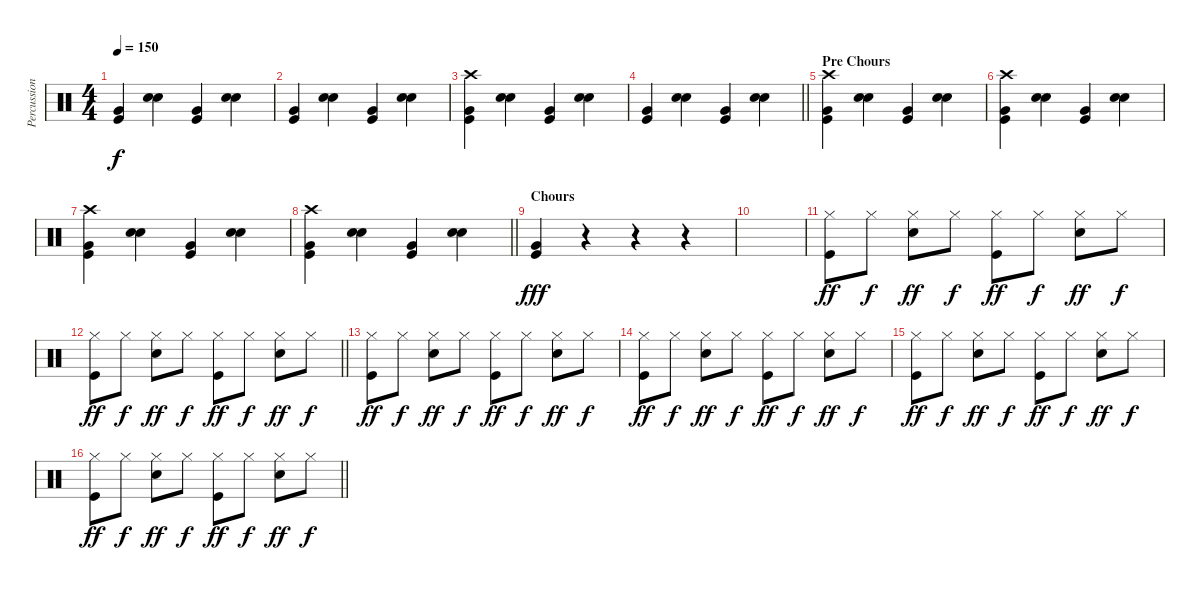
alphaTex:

\track ("Percussion" "Percussion") {instrument percussion}
\staff {score}
\articulation defaults
\ts (4 4)
\tempo 150
\clef neutral
\ks c
("Kick (hit)" "Very Low Tom (hit)").4{dy f} ("Snare (hit) 2" "Snare (hit) 2").4 ("Kick (hit)" "Very Low Tom (hit)").4 ("Snare (hit) 2" "Snare (hit) 2").4 |
("Kick (hit)" "Very Low Tom (hit)").4 ("Snare (hit) 2" "Snare (hit) 2").4 ("Kick (hit)" "Very Low Tom (hit)").4 ("Snare (hit) 2" "Snare (hit) 2").4 |
("Kick (hit)" "Very Low Tom (hit)" "Crash high (hit)").4 ("Snare (hit) 2" "Snare (hit) 2").4 ("Kick (hit)" "Very Low Tom (hit)").4 ("Snare (hit) 2" "Snare (hit) 2").4 |
\barLineRight lightlight
("Kick (hit)" "Very Low Tom (hit)").4 ("Snare (hit) 2" "Snare (hit) 2").4 ("Kick (hit)" "Very Low Tom (hit)").4 ("Snare (hit) 2" "Snare (hit) 2").4 |
\section ("" "Pre Chours")
("Kick (hit)" "Very Low Tom (hit)" "Crash high (hit)").4 ("Snare (hit) 2" "Snare (hit) 2").4 ("Kick (hit)" "Very Low Tom (hit)").4 ("Snare (hit) 2" "Snare (hit) 2").4 |
("Kick (hit)" "Very Low Tom (hit)" "Crash high (hit)").4 ("Snare (hit) 2" "Snare (hit) 2").4 ("Kick (hit)" "Very Low Tom (hit)").4 ("Snare (hit) 2" "Snare (hit) 2").4 |
("Kick (hit)" "Very Low Tom (hit)" "Crash high (hit)").4 ("Snare (hit) 2" "Snare (hit) 2").4 ("Kick (hit)" "Very Low Tom (hit)").4 ("Snare (hit) 2" "Snare (hit) 2").4 |
\barLineRight lightlight
("Kick (hit)" "Very Low Tom (hit)" "Crash high (hit)").4 ("Snare (hit) 2" "Snare (hit) 2").4 ("Kick (hit)" "Very Low Tom (hit)").4 ("Snare (hit) 2" "Snare (hit) 2").4 |
\section ("" "Chours")
("Kick (hit)" "Very Low Tom (hit)").4{dy fff} r.4 r.4 r.4 |
|
("Hi-Hat (closed)" "Kick (hit)").8{dy ff} "Hi-Hat (closed)".8{dy f} ("Hi-Hat (closed)" "Snare (hit) 2").8{dy ff} "Hi-Hat (closed)".8{dy f} ("Hi-Hat (closed)" "Kick (hit)").8{dy ff} "Hi-Hat (closed)".8{dy f} ("Hi-Hat (closed)" "Snare (hit) 2").8{dy ff} "Hi-Hat (closed)".8{dy f} |
\barLineRight lightlight
("Hi-Hat (closed)" "Kick (hit)").8{dy ff} "Hi-Hat (closed)".8{dy f} ("Hi-Hat (closed)" "Snare (hit) 2").8{dy ff} "Hi-Hat (closed)".8{dy f} ("Hi-Hat (closed)" "Kick (hit)").8{dy ff} "Hi-Hat (closed)".8{dy f} ("Hi-Hat (closed)" "Snare (hit) 2").8{dy ff} "Hi-Hat (closed)".8{dy f} |
("Hi-Hat (closed)" "Kick (hit)").8{dy ff} "Hi-Hat (closed)".8{dy f} ("Hi-Hat (closed)" "Snare (hit) 2").8{dy ff} "Hi-Hat (closed)".8{dy f} ("Hi-Hat (closed)" "Kick (hit)").8{dy ff} "Hi-Hat (closed)".8{dy f} ("Hi-Hat (closed)" "Snare (hit) 2").8{dy ff} "Hi-Hat (closed)".8{dy f} |
("Hi-Hat (closed)" "Kick (hit)").8{dy ff} "Hi-Hat (closed)".8{dy f} ("Hi-Hat (closed)" "Snare (hit) 2").8{dy ff} "Hi-Hat (closed)".8{dy f} ("Hi-Hat (closed)" "Kick (hit)").8{dy ff} "Hi-Hat (closed)".8{dy f} ("Hi-Hat (closed)" "Snare (hit) 2").8{dy ff} "Hi-Hat (closed)".8{dy f} |
("Hi-Hat (closed)" "Kick (hit)").8{dy ff} "Hi-Hat (closed)".8{dy f} ("Hi-Hat (closed)" "Snare (hit) 2").8{dy ff} "Hi-Hat (closed)".8{dy f} ("Hi-Hat (closed)" "Kick (hit)").8{dy ff} "Hi-Hat (closed)".8{dy f} ("Hi-Hat (closed)" "Snare (hit) 2").8{dy ff} "Hi-Hat (closed)".8{dy f} |
\barLineRight lightlight
("Hi-Hat (closed)" "Kick (hit)").8{dy ff} "Hi-Hat (closed)".8{dy f} ("Hi-Hat (closed)" "Snare (hit) 2").8{dy ff} "Hi-Hat (closed)".8{dy f} ("Hi-Hat (closed)" "Kick (hit)").8{dy ff} "Hi-Hat (closed)".8{dy f} ("Hi-Hat (closed)" "Snare (hit) 2").8{dy ff} "Hi-Hat (closed)".8{dy f}
